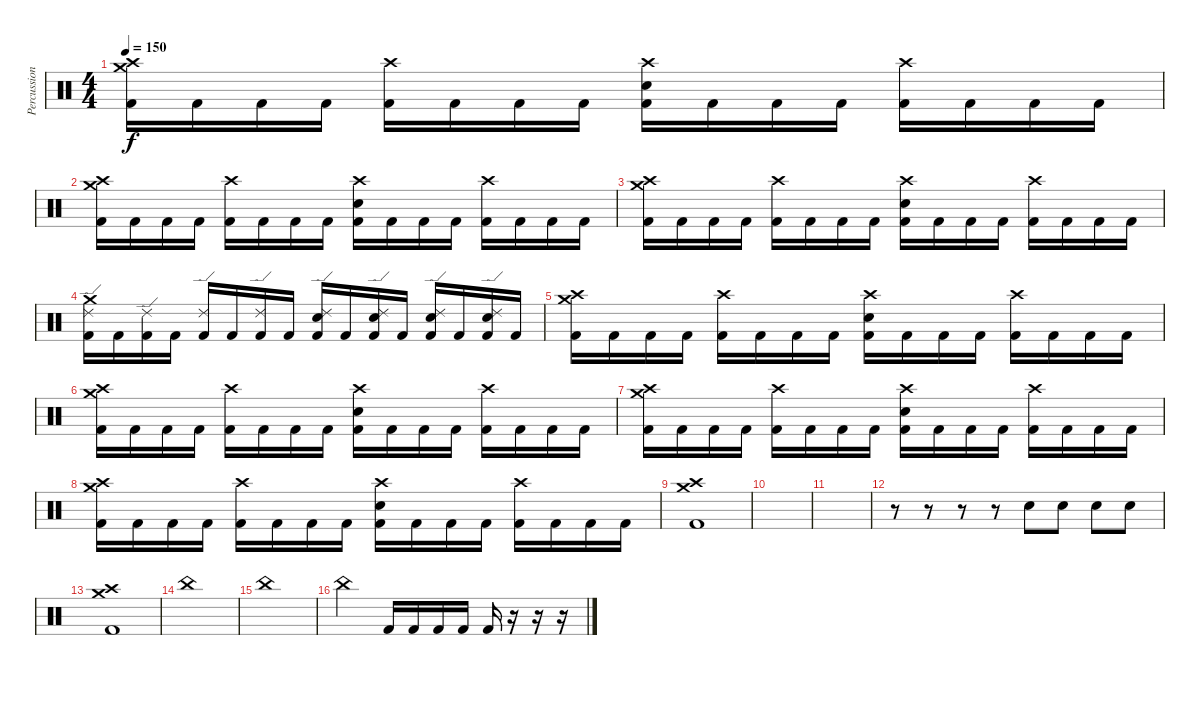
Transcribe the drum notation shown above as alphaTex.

\track ("Percussion" "Percussion") {instrument percussion}
\staff {score}
\articulation defaults
\ts (4 4)
\tempo 150
\clef neutral
\ks c
("Crash high (hit)" "Crash medium (hit)" "Kick (hit) 2").16{dy f} "Kick (hit) 2".16 "Kick (hit) 2".16 "Kick (hit) 2".16 ("Crash high (hit)" "Kick (hit) 2").16 "Kick (hit) 2".16 "Kick (hit) 2".16 "Kick (hit) 2".16 ("Crash high (hit)" "Electric Snare (hit)" "Kick (hit) 2").16 "Kick (hit) 2".16 "Kick (hit) 2".16 "Kick (hit) 2".16 ("Crash high (hit)" "Kick (hit) 2").16 "Kick (hit) 2".16 "Kick (hit) 2".16 "Kick (hit) 2".16 |
("Crash high (hit)" "Crash medium (hit)" "Kick (hit) 2").16 "Kick (hit) 2".16 "Kick (hit) 2".16 "Kick (hit) 2".16 ("Crash high (hit)" "Kick (hit) 2").16 "Kick (hit) 2".16 "Kick (hit) 2".16 "Kick (hit) 2".16 ("Crash high (hit)" "Electric Snare (hit)" "Kick (hit) 2").16 "Kick (hit) 2".16 "Kick (hit) 2".16 "Kick (hit) 2".16 ("Crash high (hit)" "Kick (hit) 2").16 "Kick (hit) 2".16 "Kick (hit) 2".16 "Kick (hit) 2".16 |
("Crash high (hit)" "Crash medium (hit)" "Kick (hit) 2").16 "Kick (hit) 2".16 "Kick (hit) 2".16 "Kick (hit) 2".16 ("Crash high (hit)" "Kick (hit) 2").16 "Kick (hit) 2".16 "Kick (hit) 2".16 "Kick (hit) 2".16 ("Crash high (hit)" "Electric Snare (hit)" "Kick (hit) 2").16 "Kick (hit) 2".16 "Kick (hit) 2".16 "Kick (hit) 2".16 ("Crash high (hit)" "Kick (hit) 2").16 "Kick (hit) 2".16 "Kick (hit) 2".16 "Kick (hit) 2".16 |
("Ride (edge) 2" "Crash medium (hit)" "Kick (hit) 2").16 "Kick (hit) 2".16 ("Ride (edge) 2" "Kick (hit) 2").16 "Kick (hit) 2".16 ("Ride (edge) 2" "Kick (hit) 2").16 "Kick (hit) 2".16 ("Ride (edge) 2" "Kick (hit) 2").16 "Kick (hit) 2".16 ("Ride (edge) 2" "Electric Snare (hit)" "Kick (hit) 2").16 "Kick (hit) 2".16 ("Ride (edge) 2" "Electric Snare (hit)" "Kick (hit) 2").16 "Kick (hit) 2".16 ("Ride (edge) 2" "Electric Snare (hit)" "Kick (hit) 2").16 "Kick (hit) 2".16 ("Ride (edge) 2" "Electric Snare (hit)" "Kick (hit) 2").16 "Kick (hit) 2".16 |
("Crash high (hit)" "Crash medium (hit)" "Kick (hit) 2").16 "Kick (hit) 2".16 "Kick (hit) 2".16 "Kick (hit) 2".16 ("Crash high (hit)" "Kick (hit) 2").16 "Kick (hit) 2".16 "Kick (hit) 2".16 "Kick (hit) 2".16 ("Crash high (hit)" "Electric Snare (hit)" "Kick (hit) 2").16 "Kick (hit) 2".16 "Kick (hit) 2".16 "Kick (hit) 2".16 ("Crash high (hit)" "Kick (hit) 2").16 "Kick (hit) 2".16 "Kick (hit) 2".16 "Kick (hit) 2".16 |
("Crash high (hit)" "Crash medium (hit)" "Kick (hit) 2").16 "Kick (hit) 2".16 "Kick (hit) 2".16 "Kick (hit) 2".16 ("Crash high (hit)" "Kick (hit) 2").16 "Kick (hit) 2".16 "Kick (hit) 2".16 "Kick (hit) 2".16 ("Crash high (hit)" "Electric Snare (hit)" "Kick (hit) 2").16 "Kick (hit) 2".16 "Kick (hit) 2".16 "Kick (hit) 2".16 ("Crash high (hit)" "Kick (hit) 2").16 "Kick (hit) 2".16 "Kick (hit) 2".16 "Kick (hit) 2".16 |
("Crash high (hit)" "Crash medium (hit)" "Kick (hit) 2").16 "Kick (hit) 2".16 "Kick (hit) 2".16 "Kick (hit) 2".16 ("Crash high (hit)" "Kick (hit) 2").16 "Kick (hit) 2".16 "Kick (hit) 2".16 "Kick (hit) 2".16 ("Crash high (hit)" "Electric Snare (hit)" "Kick (hit) 2").16 "Kick (hit) 2".16 "Kick (hit) 2".16 "Kick (hit) 2".16 ("Crash high (hit)" "Kick (hit) 2").16 "Kick (hit) 2".16 "Kick (hit) 2".16 "Kick (hit) 2".16 |
("Crash high (hit)" "Crash medium (hit)" "Kick (hit) 2").16 "Kick (hit) 2".16 "Kick (hit) 2".16 "Kick (hit) 2".16 ("Crash high (hit)" "Kick (hit) 2").16 "Kick (hit) 2".16 "Kick (hit) 2".16 "Kick (hit) 2".16 ("Crash high (hit)" "Electric Snare (hit)" "Kick (hit) 2").16 "Kick (hit) 2".16 "Kick (hit) 2".16 "Kick (hit) 2".16 ("Crash high (hit)" "Kick (hit) 2").16 "Kick (hit) 2".16 "Kick (hit) 2".16 "Kick (hit) 2".16 |
("Crash high (hit)" "Crash medium (hit)" "Kick (hit) 2").1 |
|
|
r.8 r.8 r.8 r.8 "Electric Snare (hit)".8 "Electric Snare (hit)".8 "Electric Snare (hit)".8 "Electric Snare (hit)".8 |
("Crash high (hit)" "Crash medium (hit)" "Kick (hit) 2").1 |
"China (hit)".1 |
"China (hit)".1 |
"China (hit)".2 "Kick (hit) 2".16 "Kick (hit) 2".16 "Kick (hit) 2".16 "Kick (hit) 2".16 "Kick (hit) 2".16 r.16 r.16 r.16
